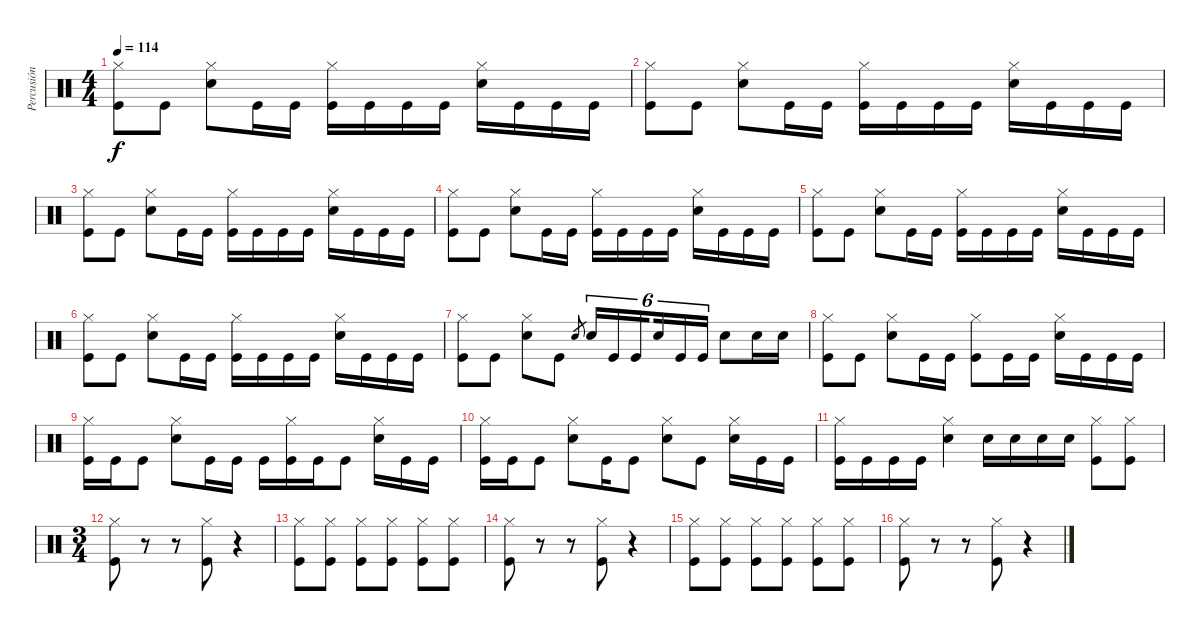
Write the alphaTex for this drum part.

\track ("Percusión" "Percusión") {instrument percussion}
\staff {score}
\articulation defaults
\ts (4 4)
\tempo 114
\clef neutral
\ks c
("Hi-Hat (closed)" "Kick (hit)").8{dy f} "Kick (hit)".8 ("Hi-Hat (closed)" "Snare (hit) 2").8 "Kick (hit)".16 "Kick (hit)".16 ("Hi-Hat (closed)" "Kick (hit)").16 "Kick (hit)".16 "Kick (hit)".16 "Kick (hit)".16 ("Hi-Hat (closed)" "Snare (hit) 2").16 "Kick (hit)".16 "Kick (hit)".16 "Kick (hit)".16 |
("Hi-Hat (closed)" "Kick (hit)").8 "Kick (hit)".8 ("Hi-Hat (closed)" "Snare (hit) 2").8 "Kick (hit)".16 "Kick (hit)".16 ("Hi-Hat (closed)" "Kick (hit)").16 "Kick (hit)".16 "Kick (hit)".16 "Kick (hit)".16 ("Hi-Hat (closed)" "Snare (hit) 2").16 "Kick (hit)".16 "Kick (hit)".16 "Kick (hit)".16 |
("Hi-Hat (closed)" "Kick (hit)").8 "Kick (hit)".8 ("Hi-Hat (closed)" "Snare (hit) 2").8 "Kick (hit)".16 "Kick (hit)".16 ("Hi-Hat (closed)" "Kick (hit)").16 "Kick (hit)".16 "Kick (hit)".16 "Kick (hit)".16 ("Hi-Hat (closed)" "Snare (hit) 2").16 "Kick (hit)".16 "Kick (hit)".16 "Kick (hit)".16 |
("Hi-Hat (closed)" "Kick (hit)").8 "Kick (hit)".8 ("Hi-Hat (closed)" "Snare (hit) 2").8 "Kick (hit)".16 "Kick (hit)".16 ("Hi-Hat (closed)" "Kick (hit)").16 "Kick (hit)".16 "Kick (hit)".16 "Kick (hit)".16 ("Hi-Hat (closed)" "Snare (hit) 2").16 "Kick (hit)".16 "Kick (hit)".16 "Kick (hit)".16 |
("Hi-Hat (closed)" "Kick (hit)").8 "Kick (hit)".8 ("Hi-Hat (closed)" "Snare (hit) 2").8 "Kick (hit)".16 "Kick (hit)".16 ("Hi-Hat (closed)" "Kick (hit)").16 "Kick (hit)".16 "Kick (hit)".16 "Kick (hit)".16 ("Hi-Hat (closed)" "Snare (hit) 2").16 "Kick (hit)".16 "Kick (hit)".16 "Kick (hit)".16 |
("Hi-Hat (closed)" "Kick (hit)").8 "Kick (hit)".8 ("Hi-Hat (closed)" "Snare (hit) 2").8 "Kick (hit)".16 "Kick (hit)".16 ("Hi-Hat (closed)" "Kick (hit)").16 "Kick (hit)".16 "Kick (hit)".16 "Kick (hit)".16 ("Hi-Hat (closed)" "Snare (hit) 2").16 "Kick (hit)".16 "Kick (hit)".16 "Kick (hit)".16 |
("Hi-Hat (closed)" "Kick (hit)").8 "Kick (hit)".8 ("Hi-Hat (closed)" "Snare (hit) 2").8 "Kick (hit)".8 "Snare (hit) 2".8{gr} "Snare (hit) 2".16{tu (6 4)} "Kick (hit)".16{tu (6 4)} "Kick (hit)".16{tu (6 4) beam splitsecondary} "Snare (hit) 2".16{tu (6 4)} "Kick (hit)".16{tu (6 4)} "Kick (hit)".16{tu (6 4)} "Snare (hit) 2".8 "Snare (hit) 2".16 "Snare (hit) 2".16 |
("Hi-Hat (closed)" "Kick (hit)").8 "Kick (hit)".8 ("Hi-Hat (closed)" "Snare (hit) 2").8 "Kick (hit)".16 "Kick (hit)".16 ("Hi-Hat (closed)" "Kick (hit)").8 "Kick (hit)".16 "Kick (hit)".16 ("Hi-Hat (closed)" "Snare (hit) 2").16 "Kick (hit)".16 "Kick (hit)".16 "Kick (hit)".16 |
("Hi-Hat (closed)" "Kick (hit)").16 "Kick (hit)".16 "Kick (hit)".8 ("Hi-Hat (closed)" "Snare (hit) 2").8 "Kick (hit)".16 "Kick (hit)".16 "Kick (hit)".16 ("Hi-Hat (closed)" "Kick (hit)").16 "Kick (hit)".16 "Kick (hit)".8 ("Hi-Hat (closed)" "Snare (hit) 2").16 "Kick (hit)".16 "Kick (hit)".16 |
("Hi-Hat (closed)" "Kick (hit)").16 "Kick (hit)".16 "Kick (hit)".8 ("Hi-Hat (closed)" "Snare (hit) 2").8 "Kick (hit)".16 "Kick (hit)".8 ("Hi-Hat (closed)" "Snare (hit) 2").8 "Kick (hit)".8 ("Hi-Hat (closed)" "Snare (hit) 2").16 "Kick (hit)".16 "Kick (hit)".16 |
("Hi-Hat (closed)" "Kick (hit)").16 "Kick (hit)".16 "Kick (hit)".16 "Kick (hit)".16 ("Hi-Hat (closed)" "Snare (hit) 2").4 "Snare (hit) 2".16 "Snare (hit) 2".16 "Snare (hit) 2".16 "Snare (hit) 2".16 ("Hi-Hat (closed)" "Kick (hit)").8 ("Hi-Hat (closed)" "Kick (hit)").8 |
\ts (3 4)
("Hi-Hat (closed)" "Kick (hit)").8 r.8 r.8 ("Hi-Hat (closed)" "Kick (hit)").8 r.4 |
("Hi-Hat (closed)" "Kick (hit)").8 ("Hi-Hat (closed)" "Kick (hit)").8 ("Hi-Hat (closed)" "Kick (hit)").8 ("Hi-Hat (closed)" "Kick (hit)").8 ("Hi-Hat (closed)" "Kick (hit)").8 ("Hi-Hat (closed)" "Kick (hit)").8 |
("Hi-Hat (closed)" "Kick (hit)").8 r.8 r.8 ("Hi-Hat (closed)" "Kick (hit)").8 r.4 |
("Hi-Hat (closed)" "Kick (hit)").8 ("Hi-Hat (closed)" "Kick (hit)").8 ("Hi-Hat (closed)" "Kick (hit)").8 ("Hi-Hat (closed)" "Kick (hit)").8 ("Hi-Hat (closed)" "Kick (hit)").8 ("Hi-Hat (closed)" "Kick (hit)").8 |
("Hi-Hat (closed)" "Kick (hit)").8 r.8 r.8 ("Hi-Hat (closed)" "Kick (hit)").8 r.4
